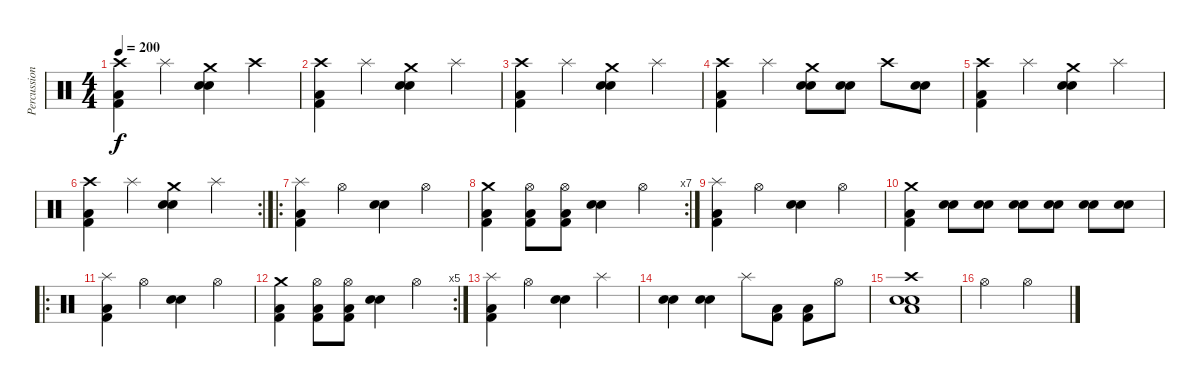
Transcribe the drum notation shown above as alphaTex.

\track ("Percussions" "Percussion") {instrument percussion}
\staff {score}
\articulation defaults
\ts (4 4)
\tempo 200
\clef neutral
\ks c
("Crash high (hit)" "Kick (hit) 2" "Low Floor Tom (hit)").4{dy f} "Splash (hit)".4 ("Crash medium (hit)" "Snare (hit) 2" "Electric Snare (hit)").4 "Crash high (hit)".4 |
("Crash high (hit)" "Kick (hit) 2" "Low Floor Tom (hit)").4 "Splash (hit)".4 ("Crash medium (hit)" "Snare (hit) 2" "Electric Snare (hit)").4 "Splash (hit)".4 |
("Crash high (hit)" "Kick (hit) 2" "Low Floor Tom (hit)").4 "Splash (hit)".4 ("Crash medium (hit)" "Snare (hit) 2" "Electric Snare (hit)").4 "Splash (hit)".4 |
("Crash high (hit)" "Kick (hit) 2" "Low Floor Tom (hit)").4 "Splash (hit)".4 ("Crash medium (hit)" "Snare (hit) 2" "Electric Snare (hit)").8 ("Snare (hit) 2" "Electric Snare (hit)").8 "Crash high (hit)".8 ("Snare (hit) 2" "Electric Snare (hit)").8 |
("Crash high (hit)" "Kick (hit) 2" "Low Floor Tom (hit)").4 "Splash (hit)".4 ("Crash medium (hit)" "Snare (hit) 2" "Electric Snare (hit)").4 "Splash (hit)".4 |
\rc 2
("Crash high (hit)" "Kick (hit) 2" "Low Floor Tom (hit)").4 "Splash (hit)".4 ("Crash medium (hit)" "Snare (hit) 2" "Electric Snare (hit)").4 "Splash (hit)".4 |
\ro
("Splash (hit)" "Kick (hit) 2" "Low Floor Tom (hit)").4 "Hi-Hat (open)".4 ("Snare (hit) 2" "Electric Snare (hit)").4 "Hi-Hat (open)".4 |
\rc 7
("Crash medium (hit)" "Kick (hit) 2" "Low Floor Tom (hit)").4 ("Hi-Hat (open)" "Kick (hit) 2" "Low Floor Tom (hit)").8 ("Hi-Hat (open)" "Kick (hit) 2" "Low Floor Tom (hit)").8 ("Snare (hit) 2" "Electric Snare (hit)").4 "Hi-Hat (open)".4 |
("Splash (hit)" "Kick (hit) 2" "Low Floor Tom (hit)").4 "Hi-Hat (open)".4 ("Snare (hit) 2" "Electric Snare (hit)").4 "Hi-Hat (open)".4 |
("Crash medium (hit)" "Kick (hit) 2" "Low Floor Tom (hit)").4 ("Snare (hit) 2" "Electric Snare (hit)").8 ("Snare (hit) 2" "Electric Snare (hit)").8 ("Snare (hit) 2" "Electric Snare (hit)").8 ("Snare (hit) 2" "Electric Snare (hit)").8 ("Snare (hit) 2" "Electric Snare (hit)").8 ("Snare (hit) 2" "Electric Snare (hit)").8 |
\ro
("Splash (hit)" "Kick (hit) 2" "Low Floor Tom (hit)").4 "Hi-Hat (open)".4 ("Snare (hit) 2" "Electric Snare (hit)").4 "Hi-Hat (open)".4 |
\rc 5
("Crash medium (hit)" "Kick (hit) 2" "Low Floor Tom (hit)").4 ("Hi-Hat (open)" "Kick (hit) 2" "Low Floor Tom (hit)").8 ("Hi-Hat (open)" "Kick (hit) 2" "Low Floor Tom (hit)").8 ("Snare (hit) 2" "Electric Snare (hit)").4 "Hi-Hat (open)".4 |
("Splash (hit)" "Kick (hit) 2" "Low Floor Tom (hit)").4 "Hi-Hat (open)".4 ("Snare (hit) 2" "Electric Snare (hit)").4 "Splash (hit)".4 |
("Snare (hit) 2" "Snare (hit) 2").4 ("Snare (hit) 2" "Snare (hit) 2").4 "Splash (hit)".8 ("Kick (hit) 2" "Low Floor Tom (hit)").8 ("Kick (hit) 2" "Low Floor Tom (hit)").8 "Hi-Hat (open)".8 |
("Crash high (hit)" "Snare (hit) 2" "Electric Snare (hit)" "Low Floor Tom (hit)").1 |
"Hi-Hat (open)".2 "Hi-Hat (open)".2
